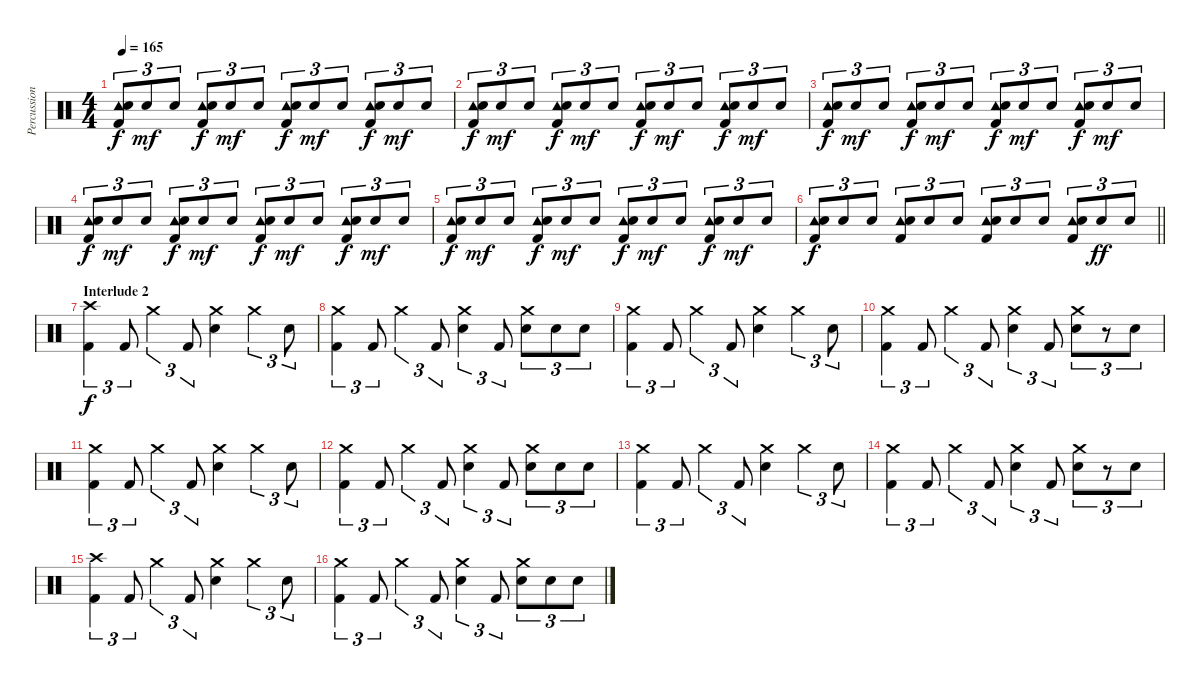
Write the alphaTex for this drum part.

\track ("Percussion" "Percussion") {instrument percussion}
\staff {score}
\articulation defaults
\ts (4 4)
\tempo 165
\clef neutral
\ks c
("Tambourine (hit)" "Electric Snare (hit)" "Kick (hit) 2").8{tu (3 2) dy f} "Electric Snare (hit)".8{tu (3 2) dy mf} "Electric Snare (hit)".8{tu (3 2)} ("Tambourine (hit)" "Electric Snare (hit)" "Kick (hit) 2").8{tu (3 2) dy f} "Electric Snare (hit)".8{tu (3 2) dy mf} "Electric Snare (hit)".8{tu (3 2)} ("Tambourine (hit)" "Electric Snare (hit)" "Kick (hit) 2").8{tu (3 2) dy f} "Electric Snare (hit)".8{tu (3 2) dy mf} "Electric Snare (hit)".8{tu (3 2)} ("Tambourine (hit)" "Electric Snare (hit)" "Kick (hit) 2").8{tu (3 2) dy f} "Electric Snare (hit)".8{tu (3 2) dy mf} "Electric Snare (hit)".8{tu (3 2)} |
("Tambourine (hit)" "Electric Snare (hit)" "Kick (hit) 2").8{tu (3 2) dy f} "Electric Snare (hit)".8{tu (3 2) dy mf} "Electric Snare (hit)".8{tu (3 2)} ("Tambourine (hit)" "Electric Snare (hit)" "Kick (hit) 2").8{tu (3 2) dy f} "Electric Snare (hit)".8{tu (3 2) dy mf} "Electric Snare (hit)".8{tu (3 2)} ("Tambourine (hit)" "Electric Snare (hit)" "Kick (hit) 2").8{tu (3 2) dy f} "Electric Snare (hit)".8{tu (3 2) dy mf} "Electric Snare (hit)".8{tu (3 2)} ("Tambourine (hit)" "Electric Snare (hit)" "Kick (hit) 2").8{tu (3 2) dy f} "Electric Snare (hit)".8{tu (3 2) dy mf} "Electric Snare (hit)".8{tu (3 2)} |
("Tambourine (hit)" "Electric Snare (hit)" "Kick (hit) 2").8{tu (3 2) dy f} "Electric Snare (hit)".8{tu (3 2) dy mf} "Electric Snare (hit)".8{tu (3 2)} ("Tambourine (hit)" "Electric Snare (hit)" "Kick (hit) 2").8{tu (3 2) dy f} "Electric Snare (hit)".8{tu (3 2) dy mf} "Electric Snare (hit)".8{tu (3 2)} ("Tambourine (hit)" "Electric Snare (hit)" "Kick (hit) 2").8{tu (3 2) dy f} "Electric Snare (hit)".8{tu (3 2) dy mf} "Electric Snare (hit)".8{tu (3 2)} ("Tambourine (hit)" "Electric Snare (hit)" "Kick (hit) 2").8{tu (3 2) dy f} "Electric Snare (hit)".8{tu (3 2) dy mf} "Electric Snare (hit)".8{tu (3 2)} |
("Tambourine (hit)" "Electric Snare (hit)" "Kick (hit) 2").8{tu (3 2) dy f} "Electric Snare (hit)".8{tu (3 2) dy mf} "Electric Snare (hit)".8{tu (3 2)} ("Tambourine (hit)" "Electric Snare (hit)" "Kick (hit) 2").8{tu (3 2) dy f} "Electric Snare (hit)".8{tu (3 2) dy mf} "Electric Snare (hit)".8{tu (3 2)} ("Tambourine (hit)" "Electric Snare (hit)" "Kick (hit) 2").8{tu (3 2) dy f} "Electric Snare (hit)".8{tu (3 2) dy mf} "Electric Snare (hit)".8{tu (3 2)} ("Tambourine (hit)" "Electric Snare (hit)" "Kick (hit) 2").8{tu (3 2) dy f} "Electric Snare (hit)".8{tu (3 2) dy mf} "Electric Snare (hit)".8{tu (3 2)} |
("Tambourine (hit)" "Electric Snare (hit)" "Kick (hit) 2").8{tu (3 2) dy f} "Electric Snare (hit)".8{tu (3 2) dy mf} "Electric Snare (hit)".8{tu (3 2)} ("Tambourine (hit)" "Electric Snare (hit)" "Kick (hit) 2").8{tu (3 2) dy f} "Electric Snare (hit)".8{tu (3 2) dy mf} "Electric Snare (hit)".8{tu (3 2)} ("Tambourine (hit)" "Electric Snare (hit)" "Kick (hit) 2").8{tu (3 2) dy f} "Electric Snare (hit)".8{tu (3 2) dy mf} "Electric Snare (hit)".8{tu (3 2)} ("Tambourine (hit)" "Electric Snare (hit)" "Kick (hit) 2").8{tu (3 2) dy f} "Electric Snare (hit)".8{tu (3 2) dy mf} "Electric Snare (hit)".8{tu (3 2)} |
\barLineRight lightlight
("Tambourine (hit)" "Electric Snare (hit)" "Kick (hit) 2").8{tu (3 2) dy f} "Electric Snare (hit)".8{tu (3 2)} "Electric Snare (hit)".8{tu (3 2)} ("Tambourine (hit)" "Electric Snare (hit)" "Kick (hit) 2").8{tu (3 2)} "Electric Snare (hit)".8{tu (3 2)} "Electric Snare (hit)".8{tu (3 2)} ("Tambourine (hit)" "Electric Snare (hit)" "Kick (hit) 2").8{tu (3 2)} "Electric Snare (hit)".8{tu (3 2)} "Electric Snare (hit)".8{tu (3 2)} ("Tambourine (hit)" "Electric Snare (hit)" "Kick (hit) 2").8{tu (3 2)} "Electric Snare (hit)".8{tu (3 2) dy ff} "Electric Snare (hit)".8{tu (3 2)} |
\section ("" "Interlude 2")
("Crash high (hit)" "Kick (hit) 2").4{tu (3 2) dy f} "Kick (hit) 2".8{tu (3 2)} "Crash medium (hit)".4{tu (3 2)} "Kick (hit) 2".8{tu (3 2)} ("Crash medium (hit)" "Electric Snare (hit)").4 "Crash medium (hit)".4{tu (3 2)} "Electric Snare (hit)".8{tu (3 2)} |
("Crash medium (hit)" "Kick (hit) 2").4{tu (3 2)} "Kick (hit) 2".8{tu (3 2)} "Crash medium (hit)".4{tu (3 2)} "Kick (hit) 2".8{tu (3 2)} ("Crash medium (hit)" "Electric Snare (hit)").4{tu (3 2)} "Kick (hit) 2".8{tu (3 2)} ("Crash medium (hit)" "Electric Snare (hit)").8{tu (3 2)} "Electric Snare (hit)".8{tu (3 2)} "Electric Snare (hit)".8{tu (3 2)} |
("Crash medium (hit)" "Kick (hit) 2").4{tu (3 2)} "Kick (hit) 2".8{tu (3 2)} "Crash medium (hit)".4{tu (3 2)} "Kick (hit) 2".8{tu (3 2)} ("Crash medium (hit)" "Electric Snare (hit)").4 "Crash medium (hit)".4{tu (3 2)} "Electric Snare (hit)".8{tu (3 2)} |
("Crash medium (hit)" "Kick (hit) 2").4{tu (3 2)} "Kick (hit) 2".8{tu (3 2)} "Crash medium (hit)".4{tu (3 2)} "Kick (hit) 2".8{tu (3 2)} ("Crash medium (hit)" "Electric Snare (hit)").4{tu (3 2)} "Kick (hit) 2".8{tu (3 2)} ("Crash medium (hit)" "Electric Snare (hit)").8{tu (3 2)} r.8{tu (3 2)} "Electric Snare (hit)".8{tu (3 2)} |
("Crash medium (hit)" "Kick (hit) 2").4{tu (3 2)} "Kick (hit) 2".8{tu (3 2)} "Crash medium (hit)".4{tu (3 2)} "Kick (hit) 2".8{tu (3 2)} ("Crash medium (hit)" "Electric Snare (hit)").4 "Crash medium (hit)".4{tu (3 2)} "Electric Snare (hit)".8{tu (3 2)} |
("Crash medium (hit)" "Kick (hit) 2").4{tu (3 2)} "Kick (hit) 2".8{tu (3 2)} "Crash medium (hit)".4{tu (3 2)} "Kick (hit) 2".8{tu (3 2)} ("Crash medium (hit)" "Electric Snare (hit)").4{tu (3 2)} "Kick (hit) 2".8{tu (3 2)} ("Crash medium (hit)" "Electric Snare (hit)").8{tu (3 2)} "Electric Snare (hit)".8{tu (3 2)} "Electric Snare (hit)".8{tu (3 2)} |
("Crash medium (hit)" "Kick (hit) 2").4{tu (3 2)} "Kick (hit) 2".8{tu (3 2)} "Crash medium (hit)".4{tu (3 2)} "Kick (hit) 2".8{tu (3 2)} ("Crash medium (hit)" "Electric Snare (hit)").4 "Crash medium (hit)".4{tu (3 2)} "Electric Snare (hit)".8{tu (3 2)} |
("Crash medium (hit)" "Kick (hit) 2").4{tu (3 2)} "Kick (hit) 2".8{tu (3 2)} "Crash medium (hit)".4{tu (3 2)} "Kick (hit) 2".8{tu (3 2)} ("Crash medium (hit)" "Electric Snare (hit)").4{tu (3 2)} "Kick (hit) 2".8{tu (3 2)} ("Crash medium (hit)" "Electric Snare (hit)").8{tu (3 2)} r.8{tu (3 2)} "Electric Snare (hit)".8{tu (3 2)} |
("Crash high (hit)" "Kick (hit) 2").4{tu (3 2)} "Kick (hit) 2".8{tu (3 2)} "Crash medium (hit)".4{tu (3 2)} "Kick (hit) 2".8{tu (3 2)} ("Crash medium (hit)" "Electric Snare (hit)").4 "Crash medium (hit)".4{tu (3 2)} "Electric Snare (hit)".8{tu (3 2)} |
("Crash medium (hit)" "Kick (hit) 2").4{tu (3 2)} "Kick (hit) 2".8{tu (3 2)} "Crash medium (hit)".4{tu (3 2)} "Kick (hit) 2".8{tu (3 2)} ("Crash medium (hit)" "Electric Snare (hit)").4{tu (3 2)} "Kick (hit) 2".8{tu (3 2)} ("Crash medium (hit)" "Electric Snare (hit)").8{tu (3 2)} "Electric Snare (hit)".8{tu (3 2)} "Electric Snare (hit)".8{tu (3 2)}
